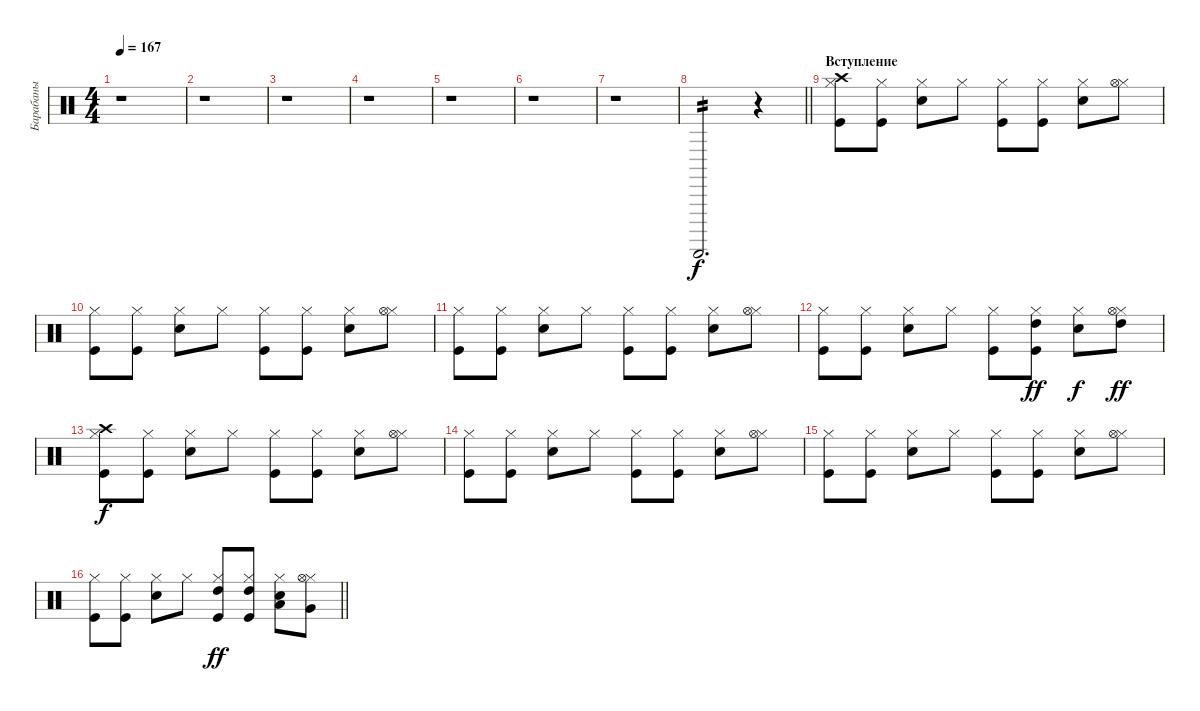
\track ("Барабаны" "Барабаны") {instrument percussion}
\staff {score}
\articulation defaults
\ts (4 4)
\tempo 167
\clef neutral
\ks c
r.1{dy f} |
r.1 |
r.1 |
r.1 |
r.1 |
r.1 |
r.1 |
\barLineRight lightlight "Guiro (scrap-return)".2{d tp 2}
r.4 |
\section ("" "Вступление")
("Kick (hit)" "Hi-Hat (closed)" "Crash high (hit)").8 ("Kick (hit)" "Hi-Hat (closed)").8 ("Snare (hit) 2" "Hi-Hat (closed)").8 "Hi-Hat (closed)".8 ("Kick (hit)" "Hi-Hat (closed)").8 ("Kick (hit)" "Hi-Hat (closed)").8 ("Snare (hit) 2" "Hi-Hat (closed)").8 ("Hi-Hat (closed)" "Hi-Hat (open)").8 |
("Kick (hit)" "Hi-Hat (closed)").8 ("Kick (hit)" "Hi-Hat (closed)").8 ("Snare (hit) 2" "Hi-Hat (closed)").8 "Hi-Hat (closed)".8 ("Kick (hit)" "Hi-Hat (closed)").8 ("Kick (hit)" "Hi-Hat (closed)").8 ("Snare (hit) 2" "Hi-Hat (closed)").8 ("Hi-Hat (closed)" "Hi-Hat (open)").8 |
("Kick (hit)" "Hi-Hat (closed)").8 ("Kick (hit)" "Hi-Hat (closed)").8 ("Snare (hit) 2" "Hi-Hat (closed)").8 "Hi-Hat (closed)".8 ("Kick (hit)" "Hi-Hat (closed)").8 ("Kick (hit)" "Hi-Hat (closed)").8 ("Snare (hit) 2" "Hi-Hat (closed)").8 ("Hi-Hat (closed)" "Hi-Hat (open)").8 |
("Kick (hit)" "Hi-Hat (closed)").8 ("Kick (hit)" "Hi-Hat (closed)").8 ("Snare (hit) 2" "Hi-Hat (closed)").8 "Hi-Hat (closed)".8 ("Kick (hit)" "Hi-Hat (closed)").8 ("Kick (hit)" "Hi-Hat (closed)" "High Tom (hit)").8{dy ff} ("Snare (hit) 2" "Hi-Hat (closed)").8{dy f} ("Hi-Hat (closed)" "Hi-Hat (open)" "High Tom (hit)").8{dy ff} |
("Kick (hit)" "Hi-Hat (closed)" "Crash high (hit)").8{dy f} ("Kick (hit)" "Hi-Hat (closed)").8 ("Snare (hit) 2" "Hi-Hat (closed)").8 "Hi-Hat (closed)".8 ("Kick (hit)" "Hi-Hat (closed)").8 ("Kick (hit)" "Hi-Hat (closed)").8 ("Snare (hit) 2" "Hi-Hat (closed)").8 ("Hi-Hat (closed)" "Hi-Hat (open)").8 |
("Kick (hit)" "Hi-Hat (closed)").8 ("Kick (hit)" "Hi-Hat (closed)").8 ("Snare (hit) 2" "Hi-Hat (closed)").8 "Hi-Hat (closed)".8 ("Kick (hit)" "Hi-Hat (closed)").8 ("Kick (hit)" "Hi-Hat (closed)").8 ("Snare (hit) 2" "Hi-Hat (closed)").8 ("Hi-Hat (closed)" "Hi-Hat (open)").8 |
("Kick (hit)" "Hi-Hat (closed)").8 ("Kick (hit)" "Hi-Hat (closed)").8 ("Snare (hit) 2" "Hi-Hat (closed)").8 "Hi-Hat (closed)".8 ("Kick (hit)" "Hi-Hat (closed)").8 ("Kick (hit)" "Hi-Hat (closed)").8 ("Snare (hit) 2" "Hi-Hat (closed)").8 ("Hi-Hat (closed)" "Hi-Hat (open)").8 |
\barLineRight lightlight
("Kick (hit)" "Hi-Hat (closed)").8 ("Kick (hit)" "Hi-Hat (closed)").8 ("Snare (hit) 2" "Hi-Hat (closed)").8 "Hi-Hat (closed)".8 ("Kick (hit)" "Hi-Hat (closed)" "High Tom (hit)").8{dy ff} ("Kick (hit)" "Hi-Hat (closed)" "High Tom (hit)").8 ("Snare (hit) 2" "Hi-Hat (closed)" "Low Tom (hit)").8 ("Hi-Hat (closed)" "Hi-Hat (open)" "Very Low Tom (hit)").8
